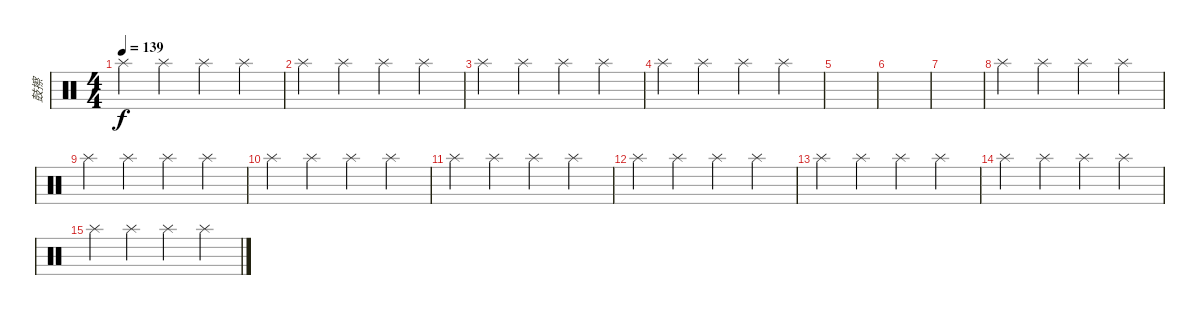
\track ("鼓擦" "鼓擦") {instrument percussion}
\staff {score}
\articulation defaults
\ts (4 4)
\tempo 139
\clef neutral
\ks c "Splash (hit)".4{dy f} "Splash (hit)".4 "Splash (hit)".4 "Splash (hit)".4
|
"Splash (hit)".4 "Splash (hit)".4 "Splash (hit)".4 "Splash (hit)".4 |
"Splash (hit)".4 "Splash (hit)".4 "Splash (hit)".4 "Splash (hit)".4 |
"Splash (hit)".4 "Splash (hit)".4 "Splash (hit)".4 "Splash (hit)".4 |
|
|
|
"Splash (hit)".4 "Splash (hit)".4 "Splash (hit)".4 "Splash (hit)".4 |
"Splash (hit)".4 "Splash (hit)".4 "Splash (hit)".4 "Splash (hit)".4 |
"Splash (hit)".4 "Splash (hit)".4 "Splash (hit)".4 "Splash (hit)".4 |
"Splash (hit)".4 "Splash (hit)".4 "Splash (hit)".4 "Splash (hit)".4 |
"Splash (hit)".4 "Splash (hit)".4 "Splash (hit)".4 "Splash (hit)".4 |
"Splash (hit)".4 "Splash (hit)".4 "Splash (hit)".4 "Splash (hit)".4 |
"Splash (hit)".4 "Splash (hit)".4 "Splash (hit)".4 "Splash (hit)".4 |
"Splash (hit)".4 "Splash (hit)".4 "Splash (hit)".4 "Splash (hit)".4
